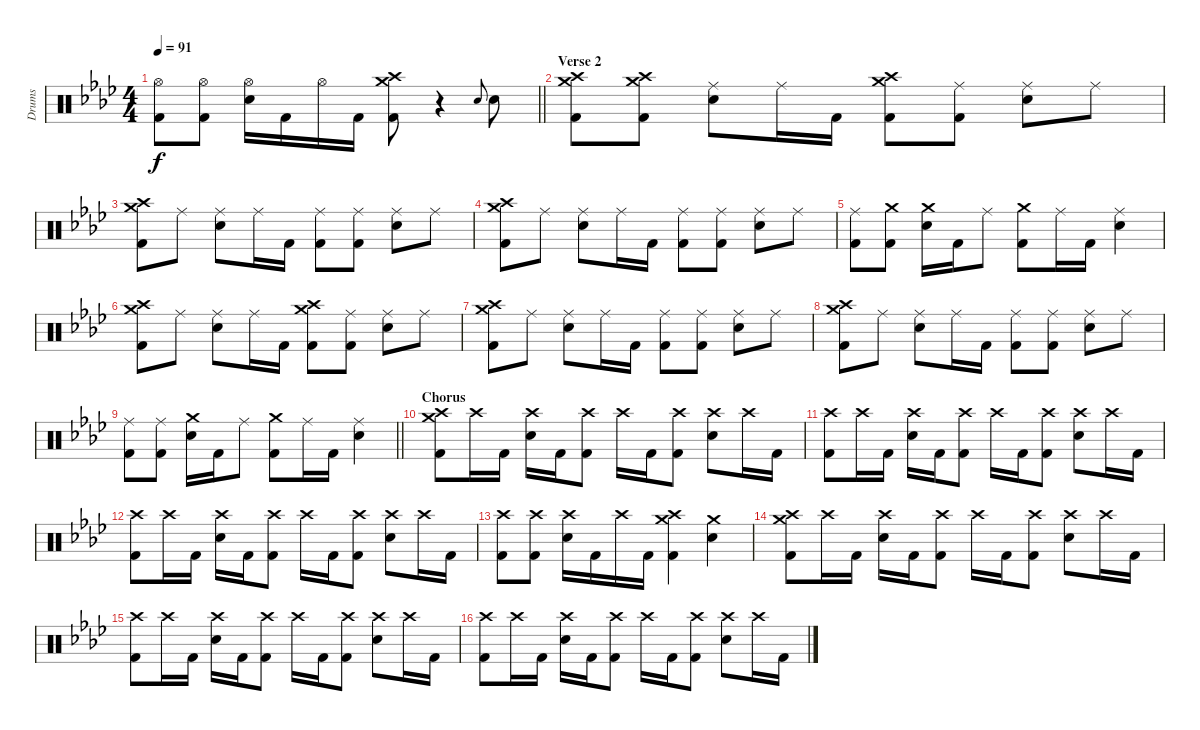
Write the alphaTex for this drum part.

\track ("Drums" "Drums") {instrument percussion}
\staff {score}
\articulation defaults
\ts (4 4)
\tempo 91
\clef neutral
\barLineRight lightlight
\ks fminor
("Hi-Hat (open)" "Kick (hit) 2").8{dy f} ("Hi-Hat (open)" "Kick (hit) 2").8 ("Hi-Hat (open)" "Electric Snare (hit)").16 "Kick (hit) 2".16 "Hi-Hat (open)".16 "Kick (hit) 2".16 ("Crash medium (hit)" "Crash high (hit)" "Kick (hit) 2").8 r.4 "Electric Snare (hit)".8{gr onbeat} "Electric Snare (hit)".8 |
\section ("" "Verse 2")
("Crash medium (hit)" "Crash high (hit)" "Kick (hit) 2").8 ("Crash medium (hit)" "Crash high (hit)" "Kick (hit) 2").8 ("Ride (middle)" "Electric Snare (hit)").8 "Ride (middle)".16 "Kick (hit) 2".16 ("Crash medium (hit)" "Crash high (hit)" "Kick (hit) 2").8 ("Ride (middle)" "Kick (hit) 2").8 ("Ride (middle)" "Electric Snare (hit)").8 "Ride (middle)".8 |
("Crash medium (hit)" "Crash high (hit)" "Kick (hit) 2").8 "Ride (middle)".8 ("Ride (middle)" "Electric Snare (hit)").8 "Ride (middle)".16 "Kick (hit) 2".16 ("Ride (middle)" "Kick (hit) 2").8 ("Ride (middle)" "Kick (hit) 2").8 ("Ride (middle)" "Electric Snare (hit)").8 "Ride (middle)".8 |
("Crash medium (hit)" "Crash high (hit)" "Kick (hit) 2").8 "Ride (middle)".8 ("Ride (middle)" "Electric Snare (hit)").8 "Ride (middle)".16 "Kick (hit) 2".16 ("Ride (middle)" "Kick (hit) 2").8 ("Ride (middle)" "Kick (hit) 2").8 ("Ride (middle)" "Electric Snare (hit)").8 "Ride (middle)".8 |
("Ride (middle)" "Kick (hit) 2").8 ("Crash medium (hit)" "Kick (hit) 2").8 ("Crash medium (hit)" "Electric Snare (hit)").16 "Kick (hit) 2".16 "Ride (middle)".8 ("Crash medium (hit)" "Kick (hit) 2").8 "Ride (middle)".16 "Kick (hit) 2".16 ("Ride (middle)" "Electric Snare (hit)").4 |
("Crash medium (hit)" "Crash high (hit)" "Kick (hit) 2").8 "Ride (middle)".8 ("Ride (middle)" "Electric Snare (hit)").8 "Ride (middle)".16 "Kick (hit) 2".16 ("Crash medium (hit)" "Crash high (hit)" "Kick (hit) 2").8 ("Ride (middle)" "Kick (hit) 2").8 ("Ride (middle)" "Electric Snare (hit)").8 "Ride (middle)".8 |
("Crash medium (hit)" "Crash high (hit)" "Kick (hit) 2").8 "Ride (middle)".8 ("Ride (middle)" "Electric Snare (hit)").8 "Ride (middle)".16 "Kick (hit) 2".16 ("Ride (middle)" "Kick (hit) 2").8 ("Ride (middle)" "Kick (hit) 2").8 ("Ride (middle)" "Electric Snare (hit)").8 "Ride (middle)".8 |
("Crash medium (hit)" "Crash high (hit)" "Kick (hit) 2").8 "Ride (middle)".8 ("Ride (middle)" "Electric Snare (hit)").8 "Ride (middle)".16 "Kick (hit) 2".16 ("Ride (middle)" "Kick (hit) 2").8 ("Ride (middle)" "Kick (hit) 2").8 ("Ride (middle)" "Electric Snare (hit)").8 "Ride (middle)".8 |
\barLineRight lightlight
("Ride (middle)" "Kick (hit) 2").8 ("Ride (middle)" "Kick (hit) 2").8 ("Crash medium (hit)" "Electric Snare (hit)").16 "Kick (hit) 2".16 "Ride (middle)".8 ("Crash medium (hit)" "Kick (hit) 2").8 "Ride (middle)".16 "Kick (hit) 2".16 ("Ride (middle)" "Electric Snare (hit)").4 |
\section ("" "Chorus")
("Crash medium (hit)" "Crash high (hit)" "Kick (hit) 2").8 "Crash high (hit)".16 "Kick (hit) 2".16 ("Crash high (hit)" "Electric Snare (hit)").16 "Kick (hit) 2".16 ("Crash high (hit)" "Kick (hit) 2").8 "Crash high (hit)".16 "Kick (hit) 2".16 ("Crash high (hit)" "Kick (hit) 2").8 ("Crash high (hit)" "Electric Snare (hit)").8 "Crash high (hit)".16 "Kick (hit) 2".16 |
("Crash high (hit)" "Kick (hit) 2").8 "Crash high (hit)".16 "Kick (hit) 2".16 ("Crash high (hit)" "Electric Snare (hit)").16 "Kick (hit) 2".16 ("Crash high (hit)" "Kick (hit) 2").8 "Crash high (hit)".16 "Kick (hit) 2".16 ("Crash high (hit)" "Kick (hit) 2").8 ("Crash high (hit)" "Electric Snare (hit)").8 "Crash high (hit)".16 "Kick (hit) 2".16 |
("Crash high (hit)" "Kick (hit) 2").8 "Crash high (hit)".16 "Kick (hit) 2".16 ("Crash high (hit)" "Electric Snare (hit)").16 "Kick (hit) 2".16 ("Crash high (hit)" "Kick (hit) 2").8 "Crash high (hit)".16 "Kick (hit) 2".16 ("Crash high (hit)" "Kick (hit) 2").8 ("Crash high (hit)" "Electric Snare (hit)").8 "Crash high (hit)".16 "Kick (hit) 2".16 |
("Crash high (hit)" "Kick (hit) 2").8 ("Crash high (hit)" "Kick (hit) 2").8 ("Crash high (hit)" "Electric Snare (hit)").16 "Kick (hit) 2".16 "Crash high (hit)".16 "Kick (hit) 2".16 ("Crash medium (hit)" "Crash high (hit)" "Kick (hit) 2").4 ("Crash medium (hit)" "Electric Snare (hit)").4 |
("Crash medium (hit)" "Crash high (hit)" "Kick (hit) 2").8 "Crash high (hit)".16 "Kick (hit) 2".16 ("Crash high (hit)" "Electric Snare (hit)").16 "Kick (hit) 2".16 ("Crash high (hit)" "Kick (hit) 2").8 "Crash high (hit)".16 "Kick (hit) 2".16 ("Crash high (hit)" "Kick (hit) 2").8 ("Crash high (hit)" "Electric Snare (hit)").8 "Crash high (hit)".16 "Kick (hit) 2".16 |
("Crash high (hit)" "Kick (hit) 2").8 "Crash high (hit)".16 "Kick (hit) 2".16 ("Crash high (hit)" "Electric Snare (hit)").16 "Kick (hit) 2".16 ("Crash high (hit)" "Kick (hit) 2").8 "Crash high (hit)".16 "Kick (hit) 2".16 ("Crash high (hit)" "Kick (hit) 2").8 ("Crash high (hit)" "Electric Snare (hit)").8 "Crash high (hit)".16 "Kick (hit) 2".16 |
("Crash high (hit)" "Kick (hit) 2").8 "Crash high (hit)".16 "Kick (hit) 2".16 ("Crash high (hit)" "Electric Snare (hit)").16 "Kick (hit) 2".16 ("Crash high (hit)" "Kick (hit) 2").8 "Crash high (hit)".16 "Kick (hit) 2".16 ("Crash high (hit)" "Kick (hit) 2").8 ("Crash high (hit)" "Electric Snare (hit)").8 "Crash high (hit)".16 "Kick (hit) 2".16
